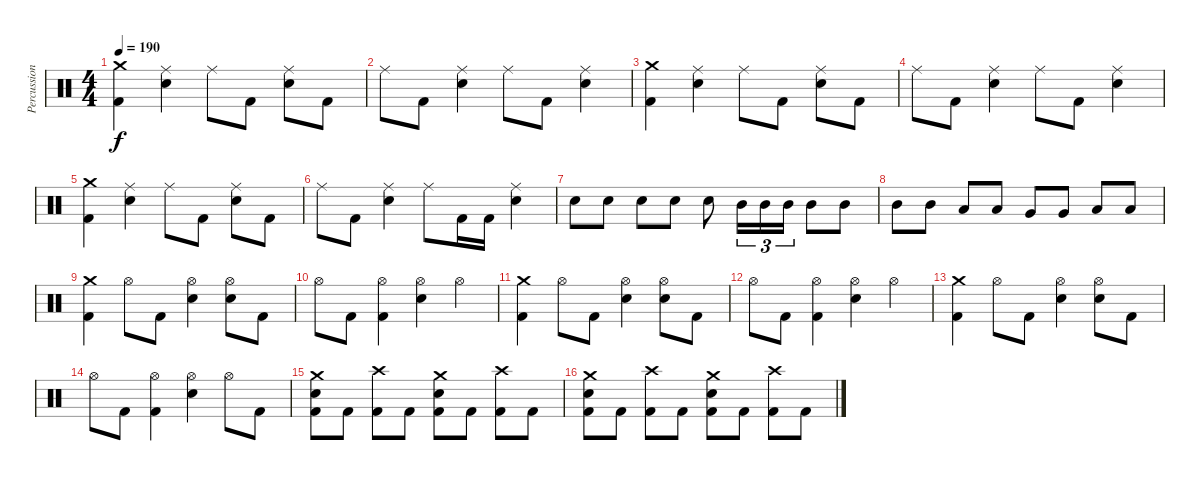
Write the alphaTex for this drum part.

\track ("Percussion" "Percussion") {instrument percussion}
\staff {score}
\articulation defaults
\ts (4 4)
\tempo 190
\clef neutral
\ks c
("Crash medium (hit)" "Kick (hit) 2").4{dy f} ("Ride (middle)" "Snare (hit) 2").4 "Ride (middle)".8 "Kick (hit) 2".8 ("Ride (middle)" "Snare (hit) 2").8 "Kick (hit) 2".8 |
"Ride (middle)".8 "Kick (hit) 2".8 ("Ride (middle)" "Snare (hit) 2").4 "Ride (middle)".8 "Kick (hit) 2".8 ("Ride (middle)" "Snare (hit) 2").4 |
("Crash medium (hit)" "Kick (hit) 2").4 ("Ride (middle)" "Snare (hit) 2").4 "Ride (middle)".8 "Kick (hit) 2".8 ("Ride (middle)" "Snare (hit) 2").8 "Kick (hit) 2".8 |
"Ride (middle)".8 "Kick (hit) 2".8 ("Ride (middle)" "Snare (hit) 2").4 "Ride (middle)".8 "Kick (hit) 2".8 ("Ride (middle)" "Snare (hit) 2").4 |
("Crash medium (hit)" "Kick (hit) 2").4 ("Ride (middle)" "Snare (hit) 2").4 "Ride (middle)".8 "Kick (hit) 2".8 ("Ride (middle)" "Snare (hit) 2").8 "Kick (hit) 2".8 |
"Ride (middle)".8 "Kick (hit) 2".8 ("Ride (middle)" "Snare (hit) 2").4 "Ride (middle)".8 "Kick (hit) 2".16 "Kick (hit) 2".16 ("Ride (middle)" "Snare (hit) 2").4 |
"Snare (hit) 2".8 "Snare (hit) 2".8 "Snare (hit) 2".8 "Snare (hit) 2".8 "Snare (hit) 2".8 "Mid Tom (hit)".16{tu (3 2)} "Mid Tom (hit)".16{tu (3 2)} "Mid Tom (hit)".16{tu (3 2)} "Mid Tom (hit)".8 "Mid Tom (hit)".8 |
"Mid Tom (hit)".8 "Mid Tom (hit)".8 "Low Tom (hit)".8 "Low Tom (hit)".8 "Very Low Tom (hit)".8 "Very Low Tom (hit)".8 "Low Floor Tom (hit)".8 "Low Floor Tom (hit)".8 |
("Crash medium (hit)" "Kick (hit) 2").4 "Hi-Hat (open)".8 "Kick (hit) 2".8 ("Hi-Hat (open)" "Snare (hit) 2").4 ("Hi-Hat (open)" "Snare (hit) 2").8 "Kick (hit) 2".8 |
"Hi-Hat (open)".8 "Kick (hit) 2".8 ("Hi-Hat (open)" "Kick (hit) 2").4 ("Hi-Hat (open)" "Snare (hit) 2").4 "Hi-Hat (open)".4 |
("Crash medium (hit)" "Kick (hit) 2").4 "Hi-Hat (open)".8 "Kick (hit) 2".8 ("Hi-Hat (open)" "Snare (hit) 2").4 ("Hi-Hat (open)" "Snare (hit) 2").8 "Kick (hit) 2".8 |
"Hi-Hat (open)".8 "Kick (hit) 2".8 ("Hi-Hat (open)" "Kick (hit) 2").4 ("Hi-Hat (open)" "Snare (hit) 2").4 "Hi-Hat (open)".4 |
("Crash medium (hit)" "Kick (hit) 2").4 "Hi-Hat (open)".8 "Kick (hit) 2".8 ("Hi-Hat (open)" "Snare (hit) 2").4 ("Hi-Hat (open)" "Snare (hit) 2").8 "Kick (hit) 2".8 |
"Hi-Hat (open)".8 "Kick (hit) 2".8 ("Hi-Hat (open)" "Kick (hit) 2").4 ("Hi-Hat (open)" "Snare (hit) 2").4 "Hi-Hat (open)".8 "Kick (hit) 2".8 |
("Crash medium (hit)" "Snare (hit) 2" "Kick (hit) 2").8 "Kick (hit) 2".8 ("Crash high (hit)" "Kick (hit) 2").8 "Kick (hit) 2".8 ("Crash medium (hit)" "Snare (hit) 2" "Kick (hit) 2").8 "Kick (hit) 2".8 ("Crash high (hit)" "Kick (hit) 2").8 "Kick (hit) 2".8 |
("Crash medium (hit)" "Snare (hit) 2" "Kick (hit) 2").8 "Kick (hit) 2".8 ("Crash high (hit)" "Kick (hit) 2").8 "Kick (hit) 2".8 ("Crash medium (hit)" "Snare (hit) 2" "Kick (hit) 2").8 "Kick (hit) 2".8 ("Crash high (hit)" "Kick (hit) 2").8 "Kick (hit) 2".8
